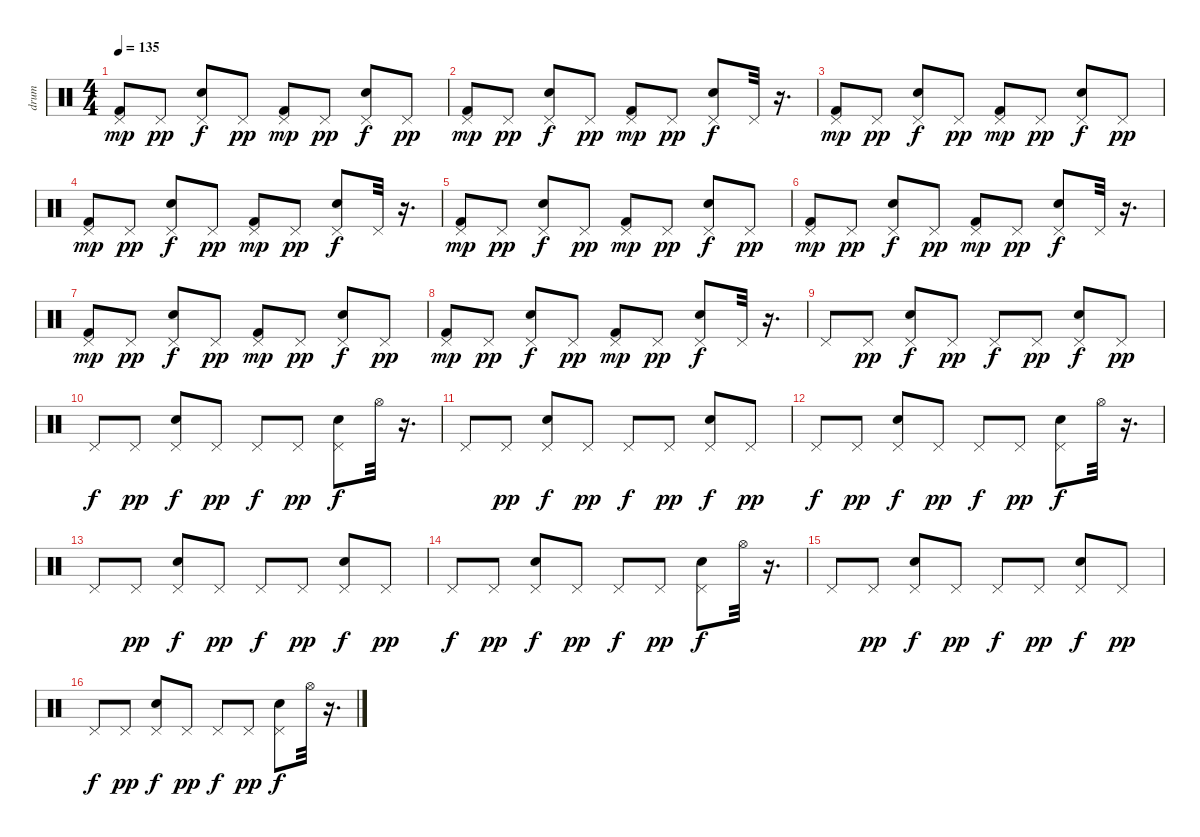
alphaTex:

\track ("drum" "drum") {instrument percussion}
\staff {score}
\articulation defaults
\ts (4 4)
\tempo 135
\clef neutral
\ks c
("Pedal Hi-Hat (hit)" "Kick (hit) 2").8{dy mp} "Pedal Hi-Hat (hit)".8{dy pp} ("Pedal Hi-Hat (hit)" "Electric Snare (hit)").8{dy f} "Pedal Hi-Hat (hit)".8{dy pp} ("Pedal Hi-Hat (hit)" "Kick (hit) 2").8{dy mp} "Pedal Hi-Hat (hit)".8{dy pp} ("Pedal Hi-Hat (hit)" "Electric Snare (hit)").8{dy f} "Pedal Hi-Hat (hit)".8{dy pp} |
("Pedal Hi-Hat (hit)" "Kick (hit) 2").8{dy mp} "Pedal Hi-Hat (hit)".8{dy pp} ("Pedal Hi-Hat (hit)" "Electric Snare (hit)").8{dy f} "Pedal Hi-Hat (hit)".8{dy pp} ("Pedal Hi-Hat (hit)" "Kick (hit) 2").8{dy mp} "Pedal Hi-Hat (hit)".8{dy pp} ("Pedal Hi-Hat (hit)" "Electric Snare (hit)").8{dy f} "Pedal Hi-Hat (hit)".32 r.16{d} |
("Pedal Hi-Hat (hit)" "Kick (hit) 2").8{dy mp} "Pedal Hi-Hat (hit)".8{dy pp} ("Pedal Hi-Hat (hit)" "Electric Snare (hit)").8{dy f} "Pedal Hi-Hat (hit)".8{dy pp} ("Pedal Hi-Hat (hit)" "Kick (hit) 2").8{dy mp} "Pedal Hi-Hat (hit)".8{dy pp} ("Pedal Hi-Hat (hit)" "Electric Snare (hit)").8{dy f} "Pedal Hi-Hat (hit)".8{dy pp} |
("Pedal Hi-Hat (hit)" "Kick (hit) 2").8{dy mp} "Pedal Hi-Hat (hit)".8{dy pp} ("Pedal Hi-Hat (hit)" "Electric Snare (hit)").8{dy f} "Pedal Hi-Hat (hit)".8{dy pp} ("Pedal Hi-Hat (hit)" "Kick (hit) 2").8{dy mp} "Pedal Hi-Hat (hit)".8{dy pp} ("Pedal Hi-Hat (hit)" "Electric Snare (hit)").8{dy f} "Pedal Hi-Hat (hit)".32 r.16{d} |
("Pedal Hi-Hat (hit)" "Kick (hit) 2").8{dy mp} "Pedal Hi-Hat (hit)".8{dy pp} ("Pedal Hi-Hat (hit)" "Electric Snare (hit)").8{dy f} "Pedal Hi-Hat (hit)".8{dy pp} ("Pedal Hi-Hat (hit)" "Kick (hit) 2").8{dy mp} "Pedal Hi-Hat (hit)".8{dy pp} ("Pedal Hi-Hat (hit)" "Electric Snare (hit)").8{dy f} "Pedal Hi-Hat (hit)".8{dy pp} |
("Pedal Hi-Hat (hit)" "Kick (hit) 2").8{dy mp} "Pedal Hi-Hat (hit)".8{dy pp} ("Pedal Hi-Hat (hit)" "Electric Snare (hit)").8{dy f} "Pedal Hi-Hat (hit)".8{dy pp} ("Pedal Hi-Hat (hit)" "Kick (hit) 2").8{dy mp} "Pedal Hi-Hat (hit)".8{dy pp} ("Pedal Hi-Hat (hit)" "Electric Snare (hit)").8{dy f} "Pedal Hi-Hat (hit)".32 r.16{d} |
("Pedal Hi-Hat (hit)" "Kick (hit) 2").8{dy mp} "Pedal Hi-Hat (hit)".8{dy pp} ("Pedal Hi-Hat (hit)" "Electric Snare (hit)").8{dy f} "Pedal Hi-Hat (hit)".8{dy pp} ("Pedal Hi-Hat (hit)" "Kick (hit) 2").8{dy mp} "Pedal Hi-Hat (hit)".8{dy pp} ("Pedal Hi-Hat (hit)" "Electric Snare (hit)").8{dy f} "Pedal Hi-Hat (hit)".8{dy pp} |
("Pedal Hi-Hat (hit)" "Kick (hit) 2").8{dy mp} "Pedal Hi-Hat (hit)".8{dy pp} ("Pedal Hi-Hat (hit)" "Electric Snare (hit)").8{dy f} "Pedal Hi-Hat (hit)".8{dy pp} ("Pedal Hi-Hat (hit)" "Kick (hit) 2").8{dy mp} "Pedal Hi-Hat (hit)".8{dy pp} ("Pedal Hi-Hat (hit)" "Electric Snare (hit)").8{dy f} "Pedal Hi-Hat (hit)".32 r.16{d} |
"Pedal Hi-Hat (hit)".8 "Pedal Hi-Hat (hit)".8{dy pp} ("Pedal Hi-Hat (hit)" "Electric Snare (hit)").8{dy f} "Pedal Hi-Hat (hit)".8{dy pp} "Pedal Hi-Hat (hit)".8{dy f} "Pedal Hi-Hat (hit)".8{dy pp} ("Pedal Hi-Hat (hit)" "Electric Snare (hit)").8{dy f} "Pedal Hi-Hat (hit)".8{dy pp} |
"Pedal Hi-Hat (hit)".8{dy f} "Pedal Hi-Hat (hit)".8{dy pp} ("Pedal Hi-Hat (hit)" "Electric Snare (hit)").8{dy f} "Pedal Hi-Hat (hit)".8{dy pp} "Pedal Hi-Hat (hit)".8{dy f} "Pedal Hi-Hat (hit)".8{dy pp} ("Pedal Hi-Hat (hit)" "Electric Snare (hit)").8{dy f} "Hi-Hat (open)".32 r.16{d} |
"Pedal Hi-Hat (hit)".8 "Pedal Hi-Hat (hit)".8{dy pp} ("Pedal Hi-Hat (hit)" "Electric Snare (hit)").8{dy f} "Pedal Hi-Hat (hit)".8{dy pp} "Pedal Hi-Hat (hit)".8{dy f} "Pedal Hi-Hat (hit)".8{dy pp} ("Pedal Hi-Hat (hit)" "Electric Snare (hit)").8{dy f} "Pedal Hi-Hat (hit)".8{dy pp} |
"Pedal Hi-Hat (hit)".8{dy f} "Pedal Hi-Hat (hit)".8{dy pp} ("Pedal Hi-Hat (hit)" "Electric Snare (hit)").8{dy f} "Pedal Hi-Hat (hit)".8{dy pp} "Pedal Hi-Hat (hit)".8{dy f} "Pedal Hi-Hat (hit)".8{dy pp} ("Pedal Hi-Hat (hit)" "Electric Snare (hit)").8{dy f} "Hi-Hat (open)".32 r.16{d} |
"Pedal Hi-Hat (hit)".8 "Pedal Hi-Hat (hit)".8{dy pp} ("Pedal Hi-Hat (hit)" "Electric Snare (hit)").8{dy f} "Pedal Hi-Hat (hit)".8{dy pp} "Pedal Hi-Hat (hit)".8{dy f} "Pedal Hi-Hat (hit)".8{dy pp} ("Pedal Hi-Hat (hit)" "Electric Snare (hit)").8{dy f} "Pedal Hi-Hat (hit)".8{dy pp} |
"Pedal Hi-Hat (hit)".8{dy f} "Pedal Hi-Hat (hit)".8{dy pp} ("Pedal Hi-Hat (hit)" "Electric Snare (hit)").8{dy f} "Pedal Hi-Hat (hit)".8{dy pp} "Pedal Hi-Hat (hit)".8{dy f} "Pedal Hi-Hat (hit)".8{dy pp} ("Pedal Hi-Hat (hit)" "Electric Snare (hit)").8{dy f} "Hi-Hat (open)".32 r.16{d} |
"Pedal Hi-Hat (hit)".8 "Pedal Hi-Hat (hit)".8{dy pp} ("Pedal Hi-Hat (hit)" "Electric Snare (hit)").8{dy f} "Pedal Hi-Hat (hit)".8{dy pp} "Pedal Hi-Hat (hit)".8{dy f} "Pedal Hi-Hat (hit)".8{dy pp} ("Pedal Hi-Hat (hit)" "Electric Snare (hit)").8{dy f} "Pedal Hi-Hat (hit)".8{dy pp} |
"Pedal Hi-Hat (hit)".8{dy f} "Pedal Hi-Hat (hit)".8{dy pp} ("Pedal Hi-Hat (hit)" "Electric Snare (hit)").8{dy f} "Pedal Hi-Hat (hit)".8{dy pp} "Pedal Hi-Hat (hit)".8{dy f} "Pedal Hi-Hat (hit)".8{dy pp} ("Pedal Hi-Hat (hit)" "Electric Snare (hit)").8{dy f} "Hi-Hat (open)".32 r.16{d}
